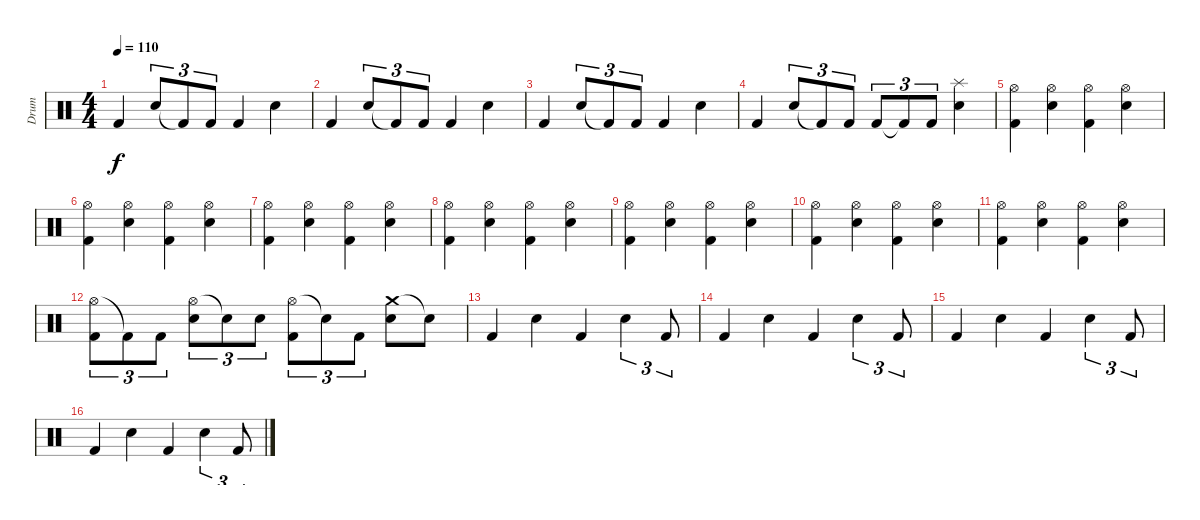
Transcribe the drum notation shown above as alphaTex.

\track ("Drum" "Drum") {instrument percussion}
\staff {score}
\articulation defaults
\ts (4 4)
\tempo 110
\clef neutral
\ks c "Kick (hit) 2".4{dy f} "Electric Snare (hit)".8{tu (3 2)} "Kick (hit) 2"{t}.8{tu (3 2)} "Kick (hit) 2".8{tu (3 2)} "Kick (hit) 2".4 "Electric Snare (hit)".4
|
"Kick (hit) 2".4 "Electric Snare (hit)".8{tu (3 2)} "Kick (hit) 2"{t}.8{tu (3 2)} "Kick (hit) 2".8{tu (3 2)} "Kick (hit) 2".4 "Electric Snare (hit)".4 |
"Kick (hit) 2".4 "Electric Snare (hit)".8{tu (3 2)} "Kick (hit) 2"{t}.8{tu (3 2)} "Kick (hit) 2".8{tu (3 2)} "Kick (hit) 2".4 "Electric Snare (hit)".4 |
"Kick (hit) 2".4 "Electric Snare (hit)".8{tu (3 2)} "Kick (hit) 2"{t}.8{tu (3 2)} "Kick (hit) 2".8{tu (3 2)} "Kick (hit) 2".8{tu (3 2)} "Kick (hit) 2"{t}.8{tu (3 2)} "Kick (hit) 2".8{tu (3 2)} ("Splash (hit)" "Electric Snare (hit)").4 |
("Hi-Hat (open)" "Kick (hit) 2").4 ("Hi-Hat (open)" "Electric Snare (hit)").4 ("Hi-Hat (open)" "Kick (hit) 2").4 ("Hi-Hat (open)" "Electric Snare (hit)").4 |
("Hi-Hat (open)" "Kick (hit) 2").4 ("Hi-Hat (open)" "Electric Snare (hit)").4 ("Hi-Hat (open)" "Kick (hit) 2").4 ("Hi-Hat (open)" "Electric Snare (hit)").4 |
("Hi-Hat (open)" "Kick (hit) 2").4 ("Hi-Hat (open)" "Electric Snare (hit)").4 ("Hi-Hat (open)" "Kick (hit) 2").4 ("Hi-Hat (open)" "Electric Snare (hit)").4 |
("Hi-Hat (open)" "Kick (hit) 2").4 ("Hi-Hat (open)" "Electric Snare (hit)").4 ("Hi-Hat (open)" "Kick (hit) 2").4 ("Hi-Hat (open)" "Electric Snare (hit)").4 |
("Hi-Hat (open)" "Kick (hit) 2").4 ("Hi-Hat (open)" "Electric Snare (hit)").4 ("Hi-Hat (open)" "Kick (hit) 2").4 ("Hi-Hat (open)" "Electric Snare (hit)").4 |
("Hi-Hat (open)" "Kick (hit) 2").4 ("Hi-Hat (open)" "Electric Snare (hit)").4 ("Hi-Hat (open)" "Kick (hit) 2").4 ("Hi-Hat (open)" "Electric Snare (hit)").4 |
("Hi-Hat (open)" "Kick (hit) 2").4 ("Hi-Hat (open)" "Electric Snare (hit)").4 ("Hi-Hat (open)" "Kick (hit) 2").4 ("Hi-Hat (open)" "Electric Snare (hit)").4 |
("Hi-Hat (open)" "Kick (hit) 2").8{tu (3 2)} "Kick (hit) 2"{t}.8{tu (3 2)} "Kick (hit) 2".8{tu (3 2)} ("Hi-Hat (open)" "Electric Snare (hit)").8{tu (3 2)} "Snare (hit)"{t}.8{tu (3 2)} "Electric Snare (hit)".8{tu (3 2)} ("Hi-Hat (open)" "Kick (hit) 2").8{tu (3 2)} "Snare (hit)"{t}.8{tu (3 2)} "Kick (hit) 2".8{tu (3 2)} ("Crash medium (hit)" "Electric Snare (hit)").8 "Snare (hit)"{t}.8 |
"Kick (hit) 2".4 "Electric Snare (hit)".4 "Kick (hit) 2".4 "Electric Snare (hit)".4{tu (3 2)} "Kick (hit) 2".8{tu (3 2)} |
"Kick (hit) 2".4 "Electric Snare (hit)".4 "Kick (hit) 2".4 "Electric Snare (hit)".4{tu (3 2)} "Kick (hit) 2".8{tu (3 2)} |
"Kick (hit) 2".4 "Electric Snare (hit)".4 "Kick (hit) 2".4 "Electric Snare (hit)".4{tu (3 2)} "Kick (hit) 2".8{tu (3 2)} |
"Kick (hit) 2".4 "Electric Snare (hit)".4 "Kick (hit) 2".4 "Electric Snare (hit)".4{tu (3 2)} "Kick (hit) 2".8{tu (3 2)}
